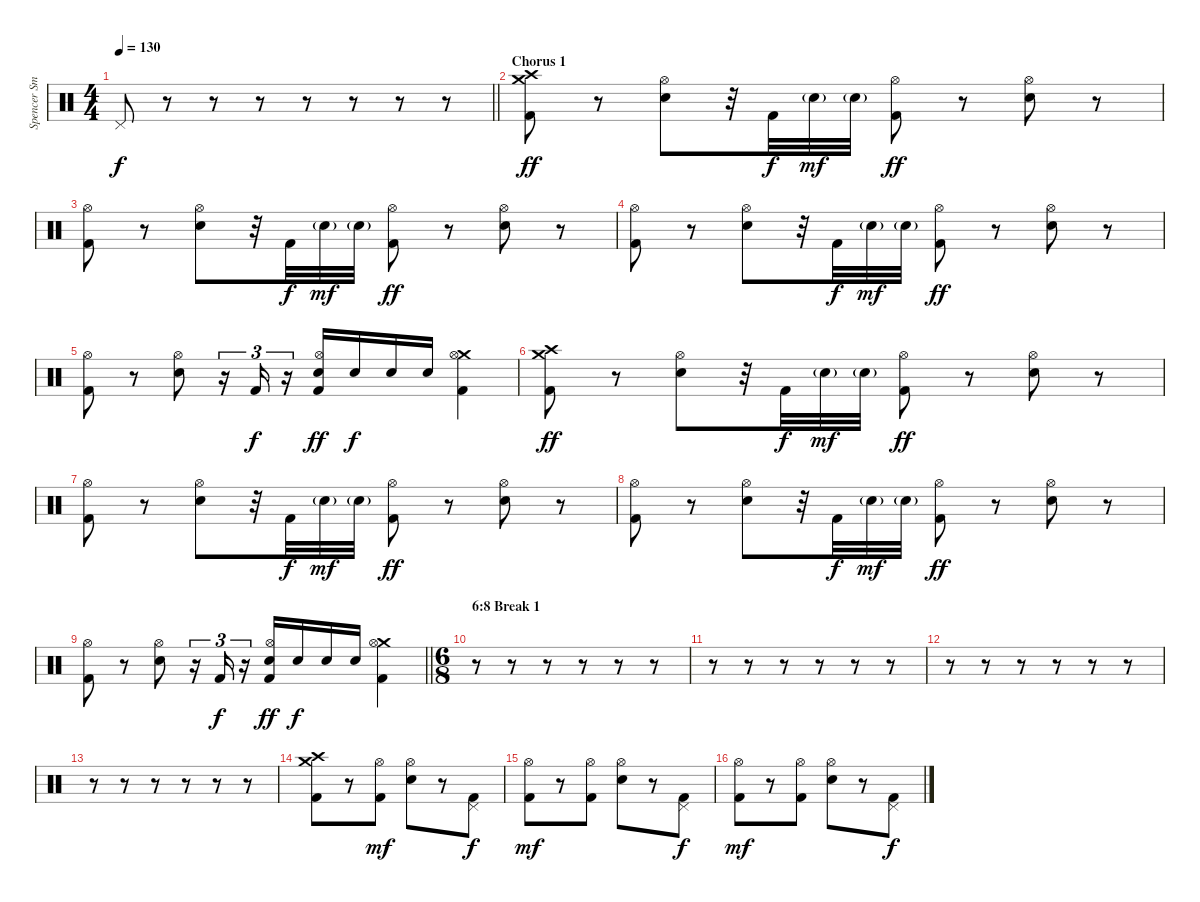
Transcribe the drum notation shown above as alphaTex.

\track ("Spencer Smith (Drums)" "Spencer Sm") {instrument percussion}
\staff {score}
\articulation defaults
\ts (4 4)
\tempo 130
\clef neutral
\barLineRight lightlight
\ks c "Pedal Hi-Hat (hit)".8{dy f}
r.8 r.8 r.8 r.8 r.8 r.8 r.8 |
\section ("" "Chorus 1")
("Crash medium (hit)" "Crash high (hit)" "Kick (hit) 2").8{dy ff} r.8 ("Hi-Hat (open)" "Electric Snare (hit)").8 r.32 "Kick (hit) 2".32{dy f} "Electric Snare (hit)"{g}.32{dy mf} "Electric Snare (hit)"{g}.32 ("Hi-Hat (open)" "Kick (hit) 2").8{dy ff} r.8 ("Hi-Hat (open)" "Electric Snare (hit)").8 r.8 |
("Hi-Hat (open)" "Kick (hit) 2").8 r.8 ("Hi-Hat (open)" "Electric Snare (hit)").8 r.32 "Kick (hit) 2".32{dy f} "Electric Snare (hit)"{g}.32{dy mf} "Electric Snare (hit)"{g}.32 ("Hi-Hat (open)" "Kick (hit) 2").8{dy ff} r.8 ("Hi-Hat (open)" "Electric Snare (hit)").8 r.8 |
("Hi-Hat (open)" "Kick (hit) 2").8 r.8 ("Hi-Hat (open)" "Electric Snare (hit)").8 r.32 "Kick (hit) 2".32{dy f} "Electric Snare (hit)"{g}.32{dy mf} "Electric Snare (hit)"{g}.32 ("Hi-Hat (open)" "Kick (hit) 2").8{dy ff} r.8 ("Hi-Hat (open)" "Electric Snare (hit)").8 r.8 |
("Hi-Hat (open)" "Kick (hit) 2").8 r.8 ("Hi-Hat (open)" "Electric Snare (hit)").8 r.16{tu (3 2)} "Kick (hit) 2".16{tu (3 2) dy f} r.16{tu (3 2)} ("Hi-Hat (open)" "Electric Snare (hit)" "Kick (hit) 2").16{dy ff} "Electric Snare (hit)".16{dy f} "Electric Snare (hit)".16 "Electric Snare (hit)".16 ("Crash medium (hit)" "Hi-Hat (open)" "Kick (hit) 2").4 |
("Crash medium (hit)" "Crash high (hit)" "Kick (hit) 2").8{dy ff} r.8 ("Hi-Hat (open)" "Electric Snare (hit)").8 r.32 "Kick (hit) 2".32{dy f} "Electric Snare (hit)"{g}.32{dy mf} "Electric Snare (hit)"{g}.32 ("Hi-Hat (open)" "Kick (hit) 2").8{dy ff} r.8 ("Hi-Hat (open)" "Electric Snare (hit)").8 r.8 |
("Hi-Hat (open)" "Kick (hit) 2").8 r.8 ("Hi-Hat (open)" "Electric Snare (hit)").8 r.32 "Kick (hit) 2".32{dy f} "Electric Snare (hit)"{g}.32{dy mf} "Electric Snare (hit)"{g}.32 ("Hi-Hat (open)" "Kick (hit) 2").8{dy ff} r.8 ("Hi-Hat (open)" "Electric Snare (hit)").8 r.8 |
("Hi-Hat (open)" "Kick (hit) 2").8 r.8 ("Hi-Hat (open)" "Electric Snare (hit)").8 r.32 "Kick (hit) 2".32{dy f} "Electric Snare (hit)"{g}.32{dy mf} "Electric Snare (hit)"{g}.32 ("Hi-Hat (open)" "Kick (hit) 2").8{dy ff} r.8 ("Hi-Hat (open)" "Electric Snare (hit)").8 r.8 |
\barLineRight lightlight
("Hi-Hat (open)" "Kick (hit) 2").8 r.8 ("Hi-Hat (open)" "Electric Snare (hit)").8 r.16{tu (3 2)} "Kick (hit) 2".16{tu (3 2) dy f} r.16{tu (3 2)} ("Hi-Hat (open)" "Electric Snare (hit)" "Kick (hit) 2").16{dy ff} "Electric Snare (hit)".16{dy f} "Electric Snare (hit)".16 "Electric Snare (hit)".16 ("Crash medium (hit)" "Hi-Hat (open)" "Kick (hit) 2").4 |
\ts (6 8)
\section ("" "6:8 Break 1")
r.8 r.8 r.8 r.8 r.8 r.8 |
r.8 r.8 r.8 r.8 r.8 r.8 |
r.8 r.8 r.8 r.8 r.8 r.8 |
r.8 r.8 r.8 r.8 r.8 r.8 |
("Crash high (hit)" "Crash medium (hit)" "Kick (hit) 2").8 r.8 ("Hi-Hat (open)" "Kick (hit) 2").8{dy mf} ("Hi-Hat (open)" "Electric Snare (hit)").8 r.8 ("Pedal Hi-Hat (hit)" "Kick (hit) 2").8{dy f} |
("Hi-Hat (open)" "Kick (hit) 2").8{dy mf} r.8 ("Hi-Hat (open)" "Kick (hit) 2").8 ("Hi-Hat (open)" "Electric Snare (hit)").8 r.8 ("Pedal Hi-Hat (hit)" "Kick (hit) 2").8{dy f} |
("Hi-Hat (open)" "Kick (hit) 2").8{dy mf} r.8 ("Hi-Hat (open)" "Kick (hit) 2").8 ("Hi-Hat (open)" "Electric Snare (hit)").8 r.8 ("Pedal Hi-Hat (hit)" "Kick (hit) 2").8{dy f}
